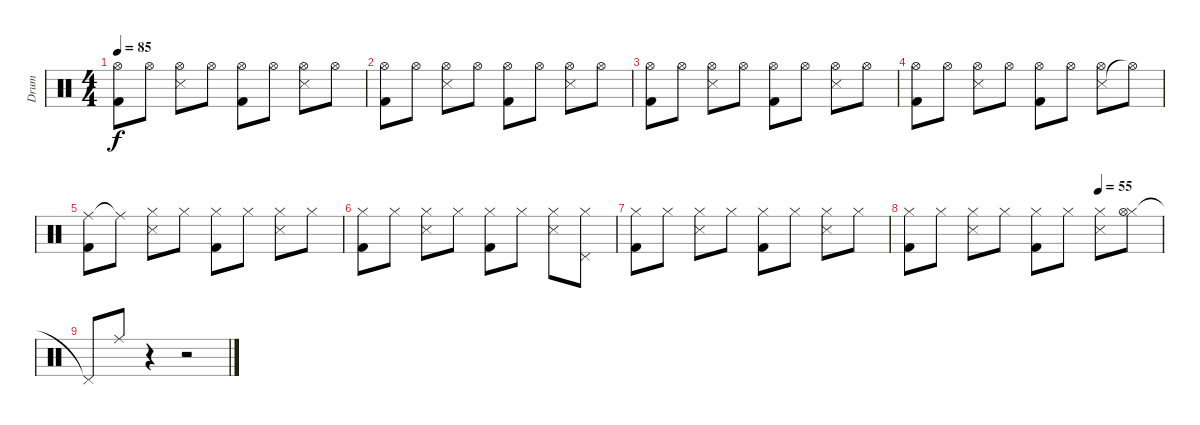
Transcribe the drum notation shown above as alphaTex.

\track ("Drum" "Drum") {instrument percussion}
\staff {score}
\articulation defaults
\ts (4 4)
\tempo 85
\clef neutral
\ks c
("Hi-Hat (open)" "Kick (hit) 2").8{dy f} "Hi-Hat (open)".8 ("Snare (side stick) 3" "Hi-Hat (open)").8 "Hi-Hat (open)".8 ("Hi-Hat (open)" "Kick (hit) 2").8 "Hi-Hat (open)".8 ("Snare (side stick) 3" "Hi-Hat (open)").8 "Hi-Hat (open)".8 |
("Hi-Hat (open)" "Kick (hit) 2").8 "Hi-Hat (open)".8 ("Snare (side stick) 3" "Hi-Hat (open)").8 "Hi-Hat (open)".8 ("Hi-Hat (open)" "Kick (hit) 2").8 "Hi-Hat (open)".8 ("Snare (side stick) 3" "Hi-Hat (open)").8 "Hi-Hat (open)".8 |
("Hi-Hat (open)" "Kick (hit) 2").8 "Hi-Hat (open)".8 ("Snare (side stick) 3" "Hi-Hat (open)").8 "Hi-Hat (open)".8 ("Hi-Hat (open)" "Kick (hit) 2").8 "Hi-Hat (open)".8 ("Snare (side stick) 3" "Hi-Hat (open)").8 "Hi-Hat (open)".8 |
("Hi-Hat (open)" "Kick (hit) 2").8 "Hi-Hat (open)".8 ("Snare (side stick) 3" "Hi-Hat (open)").8 "Hi-Hat (open)".8 ("Hi-Hat (open)" "Kick (hit) 2").8 "Hi-Hat (open)".8 ("Snare (side stick) 3" "Hi-Hat (open)").8 "Hi-Hat (open)"{t}.8 |
("Ride (middle)" "Kick (hit) 2").8 "Ride (middle)"{t}.8 ("Snare (side stick) 3" "Hi-Hat (closed)").8 "Hi-Hat (closed)".8 ("Hi-Hat (closed)" "Kick (hit) 2").8 "Hi-Hat (closed)".8 ("Snare (side stick) 3" "Hi-Hat (closed)").8 "Hi-Hat (closed)".8 |
("Hi-Hat (closed)" "Kick (hit) 2").8 "Hi-Hat (closed)".8 ("Snare (side stick) 3" "Hi-Hat (closed)").8 "Hi-Hat (closed)".8 ("Hi-Hat (closed)" "Kick (hit) 2").8 "Hi-Hat (closed)".8 ("Snare (side stick) 3" "Hi-Hat (closed)").8 ("Hi-Hat (closed)" "Pedal Hi-Hat (hit)").8 |
("Hi-Hat (closed)" "Kick (hit) 2").8 "Hi-Hat (closed)".8 ("Snare (side stick) 3" "Hi-Hat (closed)").8 "Hi-Hat (closed)".8 ("Hi-Hat (closed)" "Kick (hit) 2").8 "Hi-Hat (closed)".8 ("Snare (side stick) 3" "Hi-Hat (closed)").8 "Hi-Hat (closed)".8 |
\tempo (55 0.75)
("Hi-Hat (closed)" "Kick (hit) 2").8 "Hi-Hat (closed)".8 ("Snare (side stick) 3" "Hi-Hat (closed)").8 "Hi-Hat (closed)".8 ("Hi-Hat (closed)" "Kick (hit) 2").8 "Hi-Hat (closed)".8 ("Snare (side stick) 3" "Hi-Hat (closed)").8 ("Hi-Hat (closed)" "Hi-Hat (open)").8 |
"Pedal Hi-Hat (hit)"{t}.8 "Ride (middle)".8 r.4 r.2
